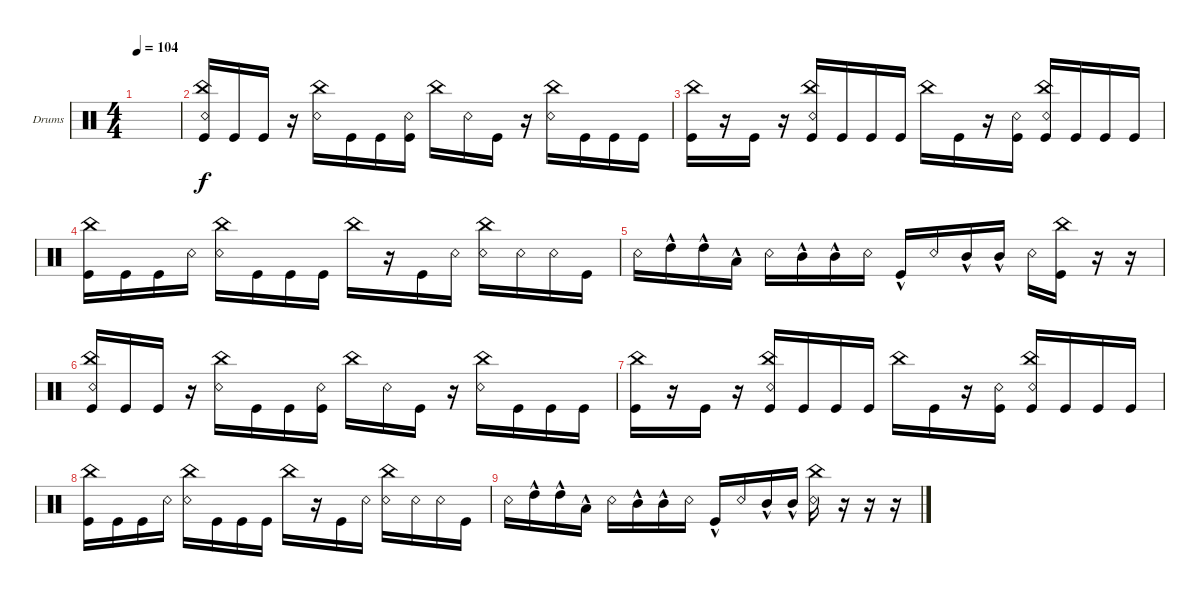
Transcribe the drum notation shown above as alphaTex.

\defaultSystemsLayout 4
\bracketExtendMode groupsimilarinstruments
\firstSystemTrackNameOrientation horizontal
\otherSystemsTrackNameOrientation horizontal
\track ("Drumkit" "Drums") {instrument percussion}
\staff {score}
\articulation defaults
\ts (4 4)
\tempo 104
\clef neutral
\ks c
|
("Kick (hit)" "China (hit)" "Snare (rim shot)").16 "Kick (hit)".16 "Kick (hit)".16 r.16 ("Snare (rim shot)" "China (hit)").16 "Kick (hit)".16 "Kick (hit)".16 ("Kick (hit)" "Snare (rim shot)").16 "China (hit)".16 "Snare (rim shot)".16 "Kick (hit)".16 r.16 ("China (hit)" "Snare (rim shot)").16 "Kick (hit)".16 "Kick (hit)".16 "Kick (hit)".16 |
("Kick (hit)" "China (hit)").16 r.16 "Kick (hit)".16 r.16 ("Kick (hit)" "China (hit)" "Snare (rim shot)").16 "Kick (hit)".16 "Kick (hit)".16 "Kick (hit)".16 "China (hit)".16 "Kick (hit)".16 r.16 ("Kick (hit)" "Snare (rim shot)").16 ("Kick (hit)" "China (hit)" "Snare (rim shot)").16 "Kick (hit)".16 "Kick (hit)".16 "Kick (hit)".16 |
("Kick (hit)" "China (hit)").16 "Kick (hit)".16 "Kick (hit)".16 "Snare (rim shot)".16 ("Snare (rim shot)" "China (hit)").16 "Kick (hit)".16 "Kick (hit)".16 "Kick (hit)".16 "China (hit)".16 r.16 "Kick (hit)".16 "Snare (rim shot)".16 ("Snare (rim shot)" "China (hit)").16 "Snare (rim shot)".16 "Snare (rim shot)".16 "Kick (hit)".16 |
"Snare (rim shot)".16 "High Tom (hit)"{hac}.16 "High Tom (hit)"{hac}.16 "Low Tom (hit)"{hac}.16 "Snare (rim shot)".16 "Mid Tom (hit)"{hac}.16 "Mid Tom (hit)"{hac}.16 "Snare (rim shot)".16 "Kick (hit)"{hac}.16 "Snare (rim shot)".16 "Mid Tom (hit)"{hac}.16 "Mid Tom (hit)"{hac}.16 "Snare (rim shot)".16 ("China (hit)" "Kick (hit)").16 r.16 r.16 |
("Kick (hit)" "China (hit)" "Snare (rim shot)").16 "Kick (hit)".16 "Kick (hit)".16 r.16 ("Snare (rim shot)" "China (hit)").16 "Kick (hit)".16 "Kick (hit)".16 ("Kick (hit)" "Snare (rim shot)").16 "China (hit)".16 "Snare (rim shot)".16 "Kick (hit)".16 r.16 ("China (hit)" "Snare (rim shot)").16 "Kick (hit)".16 "Kick (hit)".16 "Kick (hit)".16 |
("Kick (hit)" "China (hit)").16 r.16 "Kick (hit)".16 r.16 ("Kick (hit)" "China (hit)" "Snare (rim shot)").16 "Kick (hit)".16 "Kick (hit)".16 "Kick (hit)".16 "China (hit)".16 "Kick (hit)".16 r.16 ("Kick (hit)" "Snare (rim shot)").16 ("Kick (hit)" "China (hit)" "Snare (rim shot)").16 "Kick (hit)".16 "Kick (hit)".16 "Kick (hit)".16 |
("Kick (hit)" "China (hit)").16 "Kick (hit)".16 "Kick (hit)".16 "Snare (rim shot)".16 ("Snare (rim shot)" "China (hit)").16 "Kick (hit)".16 "Kick (hit)".16 "Kick (hit)".16 "China (hit)".16 r.16 "Kick (hit)".16 "Snare (rim shot)".16 ("Snare (rim shot)" "China (hit)").16 "Snare (rim shot)".16 "Snare (rim shot)".16 "Kick (hit)".16 |
"Snare (rim shot)".16 "High Tom (hit)"{hac}.16 "High Tom (hit)"{hac}.16 "Low Tom (hit)"{hac}.16 "Snare (rim shot)".16 "Mid Tom (hit)"{hac}.16 "Mid Tom (hit)"{hac}.16 "Snare (rim shot)".16 "Kick (hit)"{hac}.16 "Snare (rim shot)".16 "Mid Tom (hit)"{hac}.16 "Mid Tom (hit)"{hac}.16 ("Snare (rim shot)" "China (hit)").16 r.16 r.16 r.16
